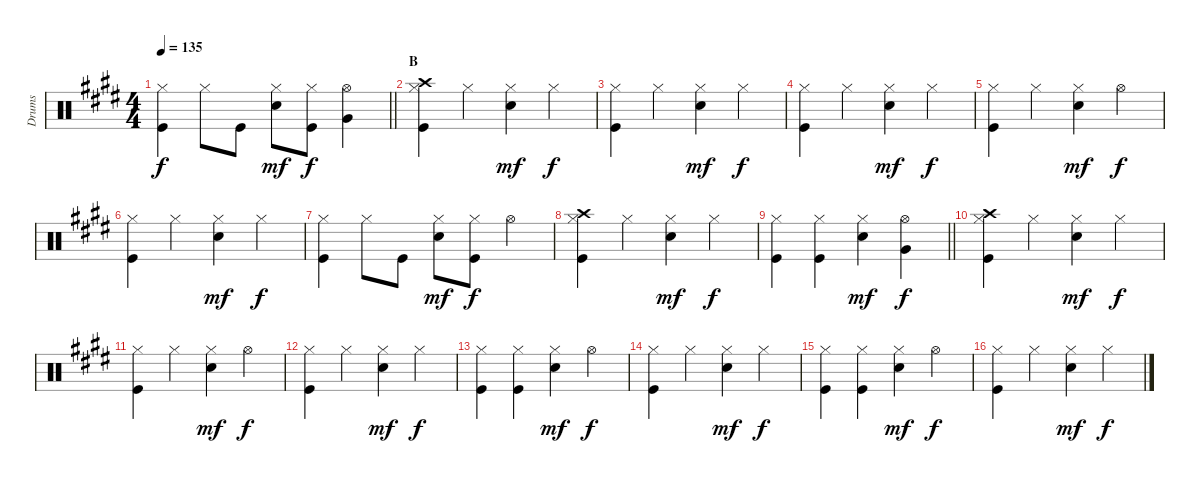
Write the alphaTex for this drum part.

\track ("Drums" "Drums") {instrument percussion}
\staff {score}
\articulation defaults
\ts (4 4)
\tempo 135
\clef neutral
\barLineRight lightlight
\ks e
("Hi-Hat (closed)" "Kick (hit)").4{dy f} "Hi-Hat (closed)".8 "Kick (hit)".8 ("Hi-Hat (closed)" "Electric Snare (hit)").8{dy mf} ("Hi-Hat (closed)" "Kick (hit)").8{dy f} ("Hi-Hat (open)" "Very Low Tom (hit)").4 |
\section ("" "B")
("Hi-Hat (closed)" "Crash high (hit)" "Kick (hit)").4 "Hi-Hat (closed)".4 ("Hi-Hat (closed)" "Electric Snare (hit)").4{dy mf} "Hi-Hat (closed)".4{dy f} |
("Hi-Hat (closed)" "Kick (hit)").4 "Hi-Hat (closed)".4 ("Hi-Hat (closed)" "Electric Snare (hit)").4{dy mf} "Hi-Hat (closed)".4{dy f} |
("Hi-Hat (closed)" "Kick (hit)").4 "Hi-Hat (closed)".4 ("Hi-Hat (closed)" "Electric Snare (hit)").4{dy mf} "Hi-Hat (closed)".4{dy f} |
("Hi-Hat (closed)" "Kick (hit)").4 "Hi-Hat (closed)".4 ("Hi-Hat (closed)" "Electric Snare (hit)").4{dy mf} "Hi-Hat (open)".4{dy f} |
("Hi-Hat (closed)" "Kick (hit)").4 "Hi-Hat (closed)".4 ("Hi-Hat (closed)" "Electric Snare (hit)").4{dy mf} "Hi-Hat (closed)".4{dy f} |
("Hi-Hat (closed)" "Kick (hit)").4 "Hi-Hat (closed)".8 "Kick (hit)".8 ("Hi-Hat (closed)" "Electric Snare (hit)").8{dy mf} ("Hi-Hat (closed)" "Kick (hit)").8{dy f} "Hi-Hat (open)".4 |
("Hi-Hat (closed)" "Crash high (hit)" "Kick (hit)").4 "Hi-Hat (closed)".4 ("Hi-Hat (closed)" "Electric Snare (hit)").4{dy mf} "Hi-Hat (closed)".4{dy f} |
\barLineRight lightlight
("Hi-Hat (closed)" "Kick (hit)").4 ("Hi-Hat (closed)" "Kick (hit)").4 ("Hi-Hat (closed)" "Electric Snare (hit)").4{dy mf} ("Hi-Hat (open)" "Very Low Tom (hit)").4{dy f} |
("Hi-Hat (closed)" "Crash high (hit)" "Kick (hit)").4 "Hi-Hat (closed)".4 ("Hi-Hat (closed)" "Electric Snare (hit)").4{dy mf} "Hi-Hat (closed)".4{dy f} |
("Hi-Hat (closed)" "Kick (hit)").4 "Hi-Hat (closed)".4 ("Hi-Hat (closed)" "Electric Snare (hit)").4{dy mf} "Hi-Hat (open)".4{dy f} |
("Hi-Hat (closed)" "Kick (hit)").4 "Hi-Hat (closed)".4 ("Hi-Hat (closed)" "Electric Snare (hit)").4{dy mf} "Hi-Hat (closed)".4{dy f} |
("Hi-Hat (closed)" "Kick (hit)").4 ("Hi-Hat (closed)" "Kick (hit)").4 ("Hi-Hat (closed)" "Electric Snare (hit)").4{dy mf} "Hi-Hat (open)".4{dy f} |
("Hi-Hat (closed)" "Kick (hit)").4 "Hi-Hat (closed)".4 ("Hi-Hat (closed)" "Electric Snare (hit)").4{dy mf} "Hi-Hat (closed)".4{dy f} |
("Hi-Hat (closed)" "Kick (hit)").4 ("Hi-Hat (closed)" "Kick (hit)").4 ("Hi-Hat (closed)" "Electric Snare (hit)").4{dy mf} "Hi-Hat (open)".4{dy f} |
("Hi-Hat (closed)" "Kick (hit)").4 "Hi-Hat (closed)".4 ("Hi-Hat (closed)" "Electric Snare (hit)").4{dy mf} "Hi-Hat (closed)".4{dy f}
